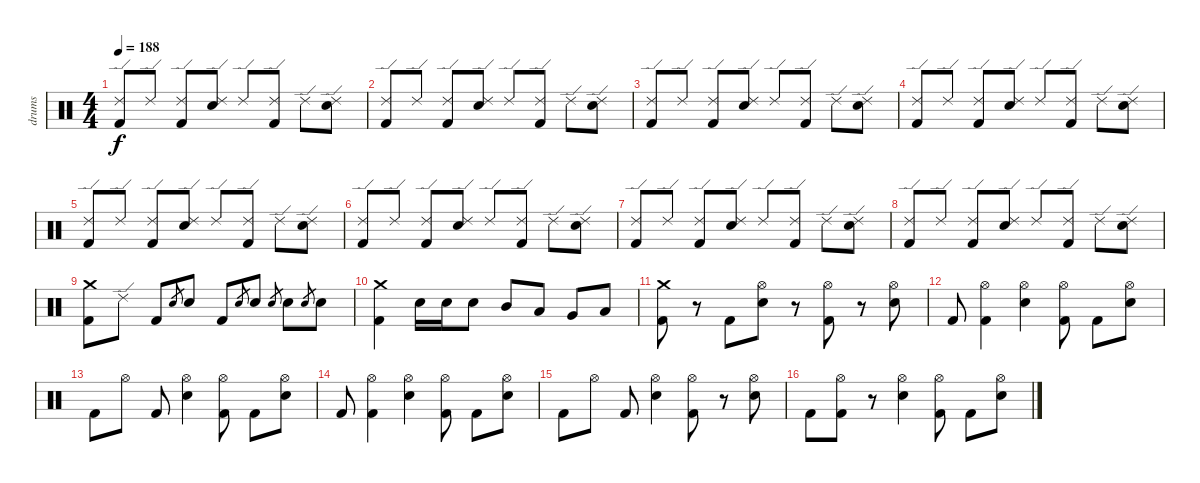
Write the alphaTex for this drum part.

\track ("drums" "drums") {instrument percussion}
\staff {score}
\articulation defaults
\ts (4 4)
\tempo 188
\clef neutral
\ks c
("Ride (edge) 2" "Kick (hit) 2").8{dy f} "Ride (edge) 2".8 ("Ride (edge) 2" "Kick (hit) 2").8 ("Ride (edge) 2" "Electric Snare (hit)").8 "Ride (edge) 2".8 ("Ride (edge) 2" "Kick (hit) 2").8 "Ride (edge) 2".8 ("Ride (edge) 2" "Electric Snare (hit)").8 |
("Ride (edge) 2" "Kick (hit) 2").8 "Ride (edge) 2".8 ("Ride (edge) 2" "Kick (hit) 2").8 ("Ride (edge) 2" "Electric Snare (hit)").8 "Ride (edge) 2".8 ("Ride (edge) 2" "Kick (hit) 2").8 "Ride (edge) 2".8 ("Ride (edge) 2" "Electric Snare (hit)").8 |
("Ride (edge) 2" "Kick (hit) 2").8 "Ride (edge) 2".8 ("Ride (edge) 2" "Kick (hit) 2").8 ("Ride (edge) 2" "Electric Snare (hit)").8 "Ride (edge) 2".8 ("Ride (edge) 2" "Kick (hit) 2").8 "Ride (edge) 2".8 ("Ride (edge) 2" "Electric Snare (hit)").8 |
("Ride (edge) 2" "Kick (hit) 2").8 "Ride (edge) 2".8 ("Ride (edge) 2" "Kick (hit) 2").8 ("Ride (edge) 2" "Electric Snare (hit)").8 "Ride (edge) 2".8 ("Ride (edge) 2" "Kick (hit) 2").8 "Ride (edge) 2".8 ("Ride (edge) 2" "Electric Snare (hit)").8 |
("Ride (edge) 2" "Kick (hit) 2").8 "Ride (edge) 2".8 ("Ride (edge) 2" "Kick (hit) 2").8 ("Ride (edge) 2" "Electric Snare (hit)").8 "Ride (edge) 2".8 ("Ride (edge) 2" "Kick (hit) 2").8 "Ride (edge) 2".8 ("Ride (edge) 2" "Electric Snare (hit)").8 |
("Ride (edge) 2" "Kick (hit) 2").8 "Ride (edge) 2".8 ("Ride (edge) 2" "Kick (hit) 2").8 ("Ride (edge) 2" "Electric Snare (hit)").8 "Ride (edge) 2".8 ("Ride (edge) 2" "Kick (hit) 2").8 "Ride (edge) 2".8 ("Ride (edge) 2" "Electric Snare (hit)").8 |
("Ride (edge) 2" "Kick (hit) 2").8 "Ride (edge) 2".8 ("Ride (edge) 2" "Kick (hit) 2").8 ("Ride (edge) 2" "Electric Snare (hit)").8 "Ride (edge) 2".8 ("Ride (edge) 2" "Kick (hit) 2").8 "Ride (edge) 2".8 ("Ride (edge) 2" "Electric Snare (hit)").8 |
("Ride (edge) 2" "Kick (hit) 2").8 "Ride (edge) 2".8 ("Ride (edge) 2" "Kick (hit) 2").8 ("Ride (edge) 2" "Electric Snare (hit)").8 "Ride (edge) 2".8 ("Ride (edge) 2" "Kick (hit) 2").8 "Ride (edge) 2".8 ("Ride (edge) 2" "Electric Snare (hit)").8 |
("Crash medium (hit)" "Kick (hit) 2").8 "Ride (edge) 2".8 "Kick (hit) 2".8 "Electric Snare (hit)".8{gr} "Electric Snare (hit)".8 "Kick (hit) 2".8 "Electric Snare (hit)".8{gr} "Electric Snare (hit)".8 "Electric Snare (hit)".8{gr} "Electric Snare (hit)".8 "Electric Snare (hit)".8{gr} "Electric Snare (hit)".8 |
("Crash medium (hit)" "Kick (hit) 2").4 "Electric Snare (hit)".16 "Electric Snare (hit)".16 "Electric Snare (hit)".8 "Mid Tom (hit)".8 "Low Tom (hit)".8 "Very Low Tom (hit)".8 "Low Floor Tom (hit)".8 |
("Crash medium (hit)" "Kick (hit) 2").8 r.8 "Kick (hit) 2".8 ("Hi-Hat (open)" "Electric Snare (hit)").8 r.8 ("Hi-Hat (open)" "Kick (hit) 2").8 r.8 ("Hi-Hat (open)" "Electric Snare (hit)").8 |
"Kick (hit) 2".8 ("Hi-Hat (open)" "Kick (hit) 2").4 ("Hi-Hat (open)" "Electric Snare (hit)").4 ("Hi-Hat (open)" "Kick (hit) 2").8 "Kick (hit) 2".8 ("Hi-Hat (open)" "Electric Snare (hit)").8 |
"Kick (hit) 2".8 "Hi-Hat (open)".8 "Kick (hit) 2".8 ("Hi-Hat (open)" "Electric Snare (hit)").4 ("Hi-Hat (open)" "Kick (hit) 2").8 "Kick (hit) 2".8 ("Hi-Hat (open)" "Electric Snare (hit)").8 |
"Kick (hit) 2".8 ("Hi-Hat (open)" "Kick (hit) 2").4 ("Hi-Hat (open)" "Electric Snare (hit)").4 ("Hi-Hat (open)" "Kick (hit) 2").8 "Kick (hit) 2".8 ("Hi-Hat (open)" "Electric Snare (hit)").8 |
"Kick (hit) 2".8 "Hi-Hat (open)".8 "Kick (hit) 2".8 ("Hi-Hat (open)" "Electric Snare (hit)").4 ("Hi-Hat (open)" "Kick (hit) 2").8 r.8 ("Hi-Hat (open)" "Electric Snare (hit)").8 |
"Kick (hit) 2".8 ("Hi-Hat (open)" "Kick (hit) 2").8 r.8 ("Hi-Hat (open)" "Electric Snare (hit)").4 ("Hi-Hat (open)" "Kick (hit) 2").8 "Kick (hit) 2".8 ("Hi-Hat (open)" "Electric Snare (hit)").8
